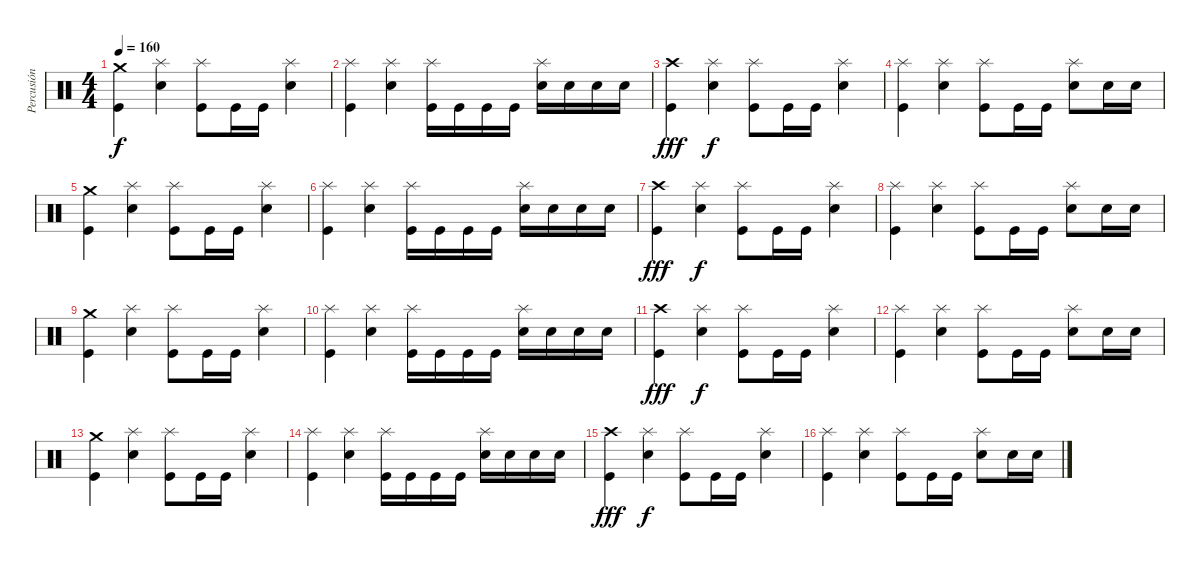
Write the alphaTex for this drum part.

\track ("Percusión" "Percusión") {instrument percussion}
\staff {score}
\articulation defaults
\ts (4 4)
\tempo 160
\clef neutral
\ks c
("Crash medium (hit)" "Kick (hit)").4{dy f} ("Splash (hit)" "Electric Snare (hit)").4 ("Splash (hit)" "Kick (hit)").8 "Kick (hit)".16 "Kick (hit)".16 ("Splash (hit)" "Electric Snare (hit)").4 |
("Splash (hit)" "Kick (hit)").4 ("Splash (hit)" "Electric Snare (hit)").4 ("Splash (hit)" "Kick (hit)").16 "Kick (hit)".16 "Kick (hit)".16 "Kick (hit)".16 ("Splash (hit)" "Electric Snare (hit)").16 "Electric Snare (hit)".16 "Electric Snare (hit)".16 "Electric Snare (hit)".16 |
("Crash high (hit)" "Kick (hit)").4{dy fff} ("Splash (hit)" "Electric Snare (hit)").4{dy f} ("Splash (hit)" "Kick (hit)").8 "Kick (hit)".16 "Kick (hit)".16 ("Splash (hit)" "Electric Snare (hit)").4 |
("Splash (hit)" "Kick (hit)").4 ("Splash (hit)" "Electric Snare (hit)").4 ("Splash (hit)" "Kick (hit)").8 "Kick (hit)".16 "Kick (hit)".16 ("Splash (hit)" "Electric Snare (hit)").8 "Electric Snare (hit)".16 "Electric Snare (hit)".16 |
("Crash medium (hit)" "Kick (hit)").4 ("Splash (hit)" "Electric Snare (hit)").4 ("Splash (hit)" "Kick (hit)").8 "Kick (hit)".16 "Kick (hit)".16 ("Splash (hit)" "Electric Snare (hit)").4 |
("Splash (hit)" "Kick (hit)").4 ("Splash (hit)" "Electric Snare (hit)").4 ("Splash (hit)" "Kick (hit)").16 "Kick (hit)".16 "Kick (hit)".16 "Kick (hit)".16 ("Splash (hit)" "Electric Snare (hit)").16 "Electric Snare (hit)".16 "Electric Snare (hit)".16 "Electric Snare (hit)".16 |
("Crash high (hit)" "Kick (hit)").4{dy fff} ("Splash (hit)" "Electric Snare (hit)").4{dy f} ("Splash (hit)" "Kick (hit)").8 "Kick (hit)".16 "Kick (hit)".16 ("Splash (hit)" "Electric Snare (hit)").4 |
("Splash (hit)" "Kick (hit)").4 ("Splash (hit)" "Electric Snare (hit)").4 ("Splash (hit)" "Kick (hit)").8 "Kick (hit)".16 "Kick (hit)".16 ("Splash (hit)" "Electric Snare (hit)").8 "Electric Snare (hit)".16 "Electric Snare (hit)".16 |
("Crash medium (hit)" "Kick (hit)").4 ("Splash (hit)" "Electric Snare (hit)").4 ("Splash (hit)" "Kick (hit)").8 "Kick (hit)".16 "Kick (hit)".16 ("Splash (hit)" "Electric Snare (hit)").4 |
("Splash (hit)" "Kick (hit)").4 ("Splash (hit)" "Electric Snare (hit)").4 ("Splash (hit)" "Kick (hit)").16 "Kick (hit)".16 "Kick (hit)".16 "Kick (hit)".16 ("Splash (hit)" "Electric Snare (hit)").16 "Electric Snare (hit)".16 "Electric Snare (hit)".16 "Electric Snare (hit)".16 |
("Crash high (hit)" "Kick (hit)").4{dy fff} ("Splash (hit)" "Electric Snare (hit)").4{dy f} ("Splash (hit)" "Kick (hit)").8 "Kick (hit)".16 "Kick (hit)".16 ("Splash (hit)" "Electric Snare (hit)").4 |
("Splash (hit)" "Kick (hit)").4 ("Splash (hit)" "Electric Snare (hit)").4 ("Splash (hit)" "Kick (hit)").8 "Kick (hit)".16 "Kick (hit)".16 ("Splash (hit)" "Electric Snare (hit)").8 "Electric Snare (hit)".16 "Electric Snare (hit)".16 |
("Crash medium (hit)" "Kick (hit)").4 ("Splash (hit)" "Electric Snare (hit)").4 ("Splash (hit)" "Kick (hit)").8 "Kick (hit)".16 "Kick (hit)".16 ("Splash (hit)" "Electric Snare (hit)").4 |
("Splash (hit)" "Kick (hit)").4 ("Splash (hit)" "Electric Snare (hit)").4 ("Splash (hit)" "Kick (hit)").16 "Kick (hit)".16 "Kick (hit)".16 "Kick (hit)".16 ("Splash (hit)" "Electric Snare (hit)").16 "Electric Snare (hit)".16 "Electric Snare (hit)".16 "Electric Snare (hit)".16 |
("Crash high (hit)" "Kick (hit)").4{dy fff} ("Splash (hit)" "Electric Snare (hit)").4{dy f} ("Splash (hit)" "Kick (hit)").8 "Kick (hit)".16 "Kick (hit)".16 ("Splash (hit)" "Electric Snare (hit)").4 |
("Splash (hit)" "Kick (hit)").4 ("Splash (hit)" "Electric Snare (hit)").4 ("Splash (hit)" "Kick (hit)").8 "Kick (hit)".16 "Kick (hit)".16 ("Splash (hit)" "Electric Snare (hit)").8 "Electric Snare (hit)".16 "Electric Snare (hit)".16
